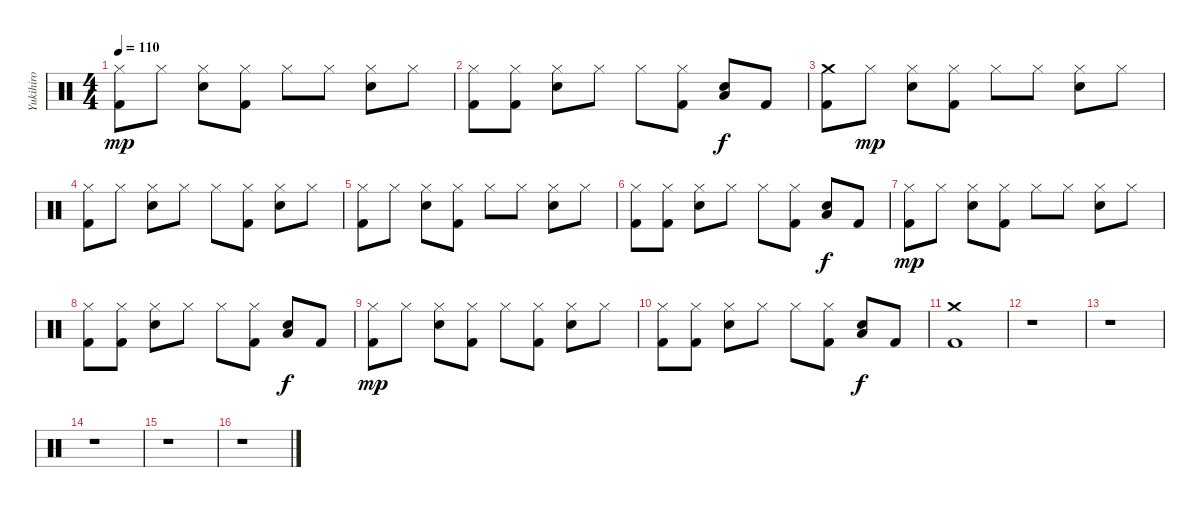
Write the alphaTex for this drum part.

\track ("Yukihiro " "Yukihiro ") {instrument percussion}
\staff {score}
\articulation defaults
\ts (4 4)
\tempo 110
\clef neutral
\ks c
("Hi-Hat (closed)" "Kick (hit) 2").8{dy mp} "Hi-Hat (closed)".8 ("Hi-Hat (closed)" "Electric Snare (hit)").8 ("Hi-Hat (closed)" "Kick (hit) 2").8 "Hi-Hat (closed)".8 "Hi-Hat (closed)".8 ("Hi-Hat (closed)" "Electric Snare (hit)").8 "Hi-Hat (closed)".8 |
("Hi-Hat (closed)" "Kick (hit) 2").8 ("Hi-Hat (closed)" "Kick (hit) 2").8 ("Hi-Hat (closed)" "Electric Snare (hit)").8 "Hi-Hat (closed)".8 "Hi-Hat (closed)".8 ("Hi-Hat (closed)" "Kick (hit) 2").8 ("Electric Snare (hit)" "Low Floor Tom (hit)").8{dy f} "Kick (hit) 2".8 |
("Crash medium (hit)" "Kick (hit) 2").8 "Hi-Hat (closed)".8{dy mp} ("Hi-Hat (closed)" "Electric Snare (hit)").8 ("Hi-Hat (closed)" "Kick (hit) 2").8 "Hi-Hat (closed)".8 "Hi-Hat (closed)".8 ("Hi-Hat (closed)" "Electric Snare (hit)").8 "Hi-Hat (closed)".8 |
("Hi-Hat (closed)" "Kick (hit) 2").8 "Hi-Hat (closed)".8 ("Hi-Hat (closed)" "Electric Snare (hit)").8 "Hi-Hat (closed)".8 "Hi-Hat (closed)".8 ("Hi-Hat (closed)" "Kick (hit) 2").8 ("Hi-Hat (closed)" "Electric Snare (hit)").8 "Hi-Hat (closed)".8 |
("Hi-Hat (closed)" "Kick (hit) 2").8 "Hi-Hat (closed)".8 ("Hi-Hat (closed)" "Electric Snare (hit)").8 ("Hi-Hat (closed)" "Kick (hit) 2").8 "Hi-Hat (closed)".8 "Hi-Hat (closed)".8 ("Hi-Hat (closed)" "Electric Snare (hit)").8 "Hi-Hat (closed)".8 |
("Hi-Hat (closed)" "Kick (hit) 2").8 ("Hi-Hat (closed)" "Kick (hit) 2").8 ("Hi-Hat (closed)" "Electric Snare (hit)").8 "Hi-Hat (closed)".8 "Hi-Hat (closed)".8 ("Hi-Hat (closed)" "Kick (hit) 2").8 ("Electric Snare (hit)" "Low Floor Tom (hit)").8{dy f} "Kick (hit) 2".8 |
("Hi-Hat (closed)" "Kick (hit) 2").8{dy mp} "Hi-Hat (closed)".8 ("Hi-Hat (closed)" "Electric Snare (hit)").8 ("Hi-Hat (closed)" "Kick (hit) 2").8 "Hi-Hat (closed)".8 "Hi-Hat (closed)".8 ("Hi-Hat (closed)" "Electric Snare (hit)").8 "Hi-Hat (closed)".8 |
("Hi-Hat (closed)" "Kick (hit) 2").8 ("Hi-Hat (closed)" "Kick (hit) 2").8 ("Hi-Hat (closed)" "Electric Snare (hit)").8 "Hi-Hat (closed)".8 "Hi-Hat (closed)".8 ("Hi-Hat (closed)" "Kick (hit) 2").8 ("Electric Snare (hit)" "Low Floor Tom (hit)").8{dy f} "Kick (hit) 2".8 |
("Hi-Hat (closed)" "Kick (hit) 2").8{dy mp} "Hi-Hat (closed)".8 ("Hi-Hat (closed)" "Electric Snare (hit)").8 ("Hi-Hat (closed)" "Kick (hit) 2").8 "Hi-Hat (closed)".8 ("Hi-Hat (closed)" "Kick (hit) 2").8 ("Hi-Hat (closed)" "Electric Snare (hit)").8 "Hi-Hat (closed)".8 |
("Hi-Hat (closed)" "Kick (hit) 2").8 ("Hi-Hat (closed)" "Kick (hit) 2").8 ("Hi-Hat (closed)" "Electric Snare (hit)").8 "Hi-Hat (closed)".8 "Hi-Hat (closed)".8 ("Hi-Hat (closed)" "Kick (hit) 2").8 ("Electric Snare (hit)" "Low Floor Tom (hit)").8{dy f} "Kick (hit) 2".8 |
("Crash medium (hit)" "Kick (hit) 2").1 |
r.1 |
r.1 |
r.1 |
r.1 |
r.1
